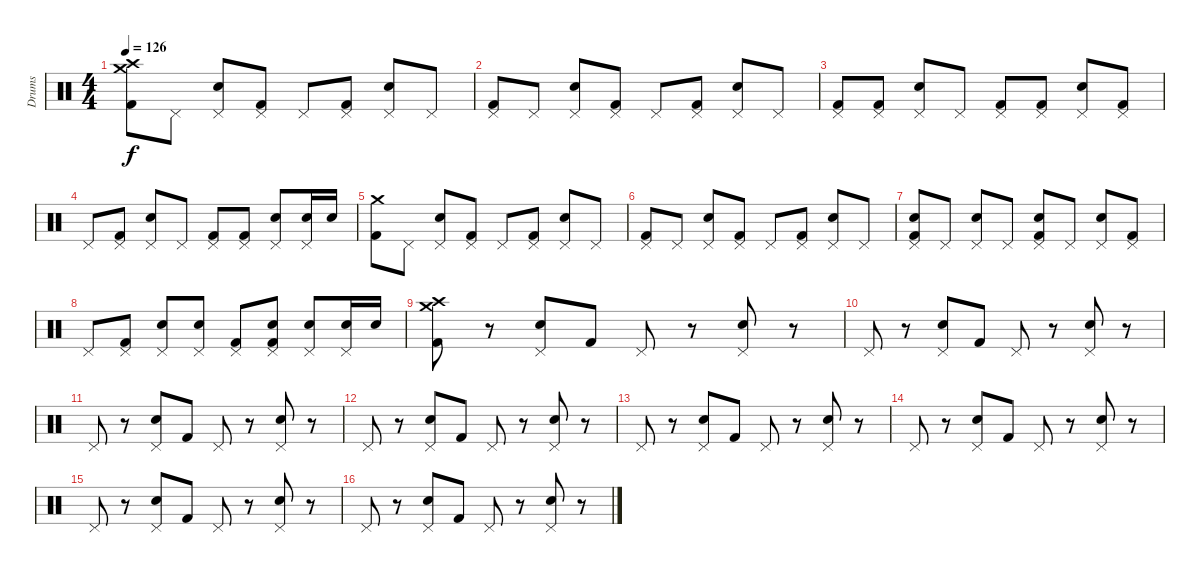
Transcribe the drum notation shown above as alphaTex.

\track ("Drums" "Drums") {instrument percussion}
\staff {score}
\articulation defaults
\ts (4 4)
\tempo 126
\clef neutral
\ks c
("Crash medium (hit)" "Crash high (hit)" "Kick (hit) 2").8{dy f} "Pedal Hi-Hat (hit)".8 ("Pedal Hi-Hat (hit)" "Snare (hit) 2").8 ("Pedal Hi-Hat (hit)" "Kick (hit) 2").8 "Pedal Hi-Hat (hit)".8 ("Pedal Hi-Hat (hit)" "Kick (hit) 2").8 ("Pedal Hi-Hat (hit)" "Snare (hit) 2").8 "Pedal Hi-Hat (hit)".8 |
("Pedal Hi-Hat (hit)" "Kick (hit) 2").8 "Pedal Hi-Hat (hit)".8 ("Pedal Hi-Hat (hit)" "Snare (hit) 2").8 ("Pedal Hi-Hat (hit)" "Kick (hit) 2").8 "Pedal Hi-Hat (hit)".8 ("Pedal Hi-Hat (hit)" "Kick (hit) 2").8 ("Pedal Hi-Hat (hit)" "Snare (hit) 2").8 "Pedal Hi-Hat (hit)".8 |
("Pedal Hi-Hat (hit)" "Kick (hit) 2").8 ("Pedal Hi-Hat (hit)" "Kick (hit) 2").8 ("Pedal Hi-Hat (hit)" "Snare (hit) 2").8 "Pedal Hi-Hat (hit)".8 ("Pedal Hi-Hat (hit)" "Kick (hit) 2").8 ("Pedal Hi-Hat (hit)" "Kick (hit) 2").8 ("Pedal Hi-Hat (hit)" "Snare (hit) 2").8 ("Pedal Hi-Hat (hit)" "Kick (hit) 2").8 |
"Pedal Hi-Hat (hit)".8 ("Pedal Hi-Hat (hit)" "Kick (hit) 2").8 ("Pedal Hi-Hat (hit)" "Snare (hit) 2").8 "Pedal Hi-Hat (hit)".8 ("Pedal Hi-Hat (hit)" "Kick (hit) 2").8 ("Pedal Hi-Hat (hit)" "Kick (hit) 2").8 ("Pedal Hi-Hat (hit)" "Snare (hit) 2").8 ("Pedal Hi-Hat (hit)" "Snare (hit) 2").16 "Snare (hit) 2".16 |
("Crash medium (hit)" "Kick (hit) 2").8 "Pedal Hi-Hat (hit)".8 ("Pedal Hi-Hat (hit)" "Snare (hit) 2").8 ("Pedal Hi-Hat (hit)" "Kick (hit) 2").8 "Pedal Hi-Hat (hit)".8 ("Pedal Hi-Hat (hit)" "Kick (hit) 2").8 ("Pedal Hi-Hat (hit)" "Snare (hit) 2").8 "Pedal Hi-Hat (hit)".8 |
("Pedal Hi-Hat (hit)" "Kick (hit) 2").8 "Pedal Hi-Hat (hit)".8 ("Pedal Hi-Hat (hit)" "Snare (hit) 2").8 ("Pedal Hi-Hat (hit)" "Kick (hit) 2").8 "Pedal Hi-Hat (hit)".8 ("Pedal Hi-Hat (hit)" "Kick (hit) 2").8 ("Pedal Hi-Hat (hit)" "Snare (hit) 2").8 "Pedal Hi-Hat (hit)".8 |
("Pedal Hi-Hat (hit)" "Snare (hit) 2" "Kick (hit) 2").8 "Pedal Hi-Hat (hit)".8 ("Pedal Hi-Hat (hit)" "Snare (hit) 2").8 "Pedal Hi-Hat (hit)".8 ("Pedal Hi-Hat (hit)" "Snare (hit) 2" "Kick (hit) 2").8 "Pedal Hi-Hat (hit)".8 ("Pedal Hi-Hat (hit)" "Snare (hit) 2").8 ("Pedal Hi-Hat (hit)" "Kick (hit) 2").8 |
"Pedal Hi-Hat (hit)".8 ("Pedal Hi-Hat (hit)" "Kick (hit) 2").8 ("Pedal Hi-Hat (hit)" "Snare (hit) 2").8 ("Pedal Hi-Hat (hit)" "Snare (hit) 2").8 ("Pedal Hi-Hat (hit)" "Kick (hit) 2").8 ("Pedal Hi-Hat (hit)" "Snare (hit) 2" "Kick (hit) 2").8 ("Pedal Hi-Hat (hit)" "Snare (hit) 2").8 ("Pedal Hi-Hat (hit)" "Snare (hit) 2").16 "Snare (hit) 2".16 |
("Crash medium (hit)" "Crash high (hit)" "Kick (hit) 2").8 r.8 ("Pedal Hi-Hat (hit)" "Snare (hit) 2").8 "Kick (hit) 2".8 "Pedal Hi-Hat (hit)".8 r.8 ("Pedal Hi-Hat (hit)" "Snare (hit) 2").8 r.8 |
"Pedal Hi-Hat (hit)".8 r.8 ("Pedal Hi-Hat (hit)" "Snare (hit) 2").8 "Kick (hit) 2".8 "Pedal Hi-Hat (hit)".8 r.8 ("Pedal Hi-Hat (hit)" "Snare (hit) 2").8 r.8 |
"Pedal Hi-Hat (hit)".8 r.8 ("Pedal Hi-Hat (hit)" "Snare (hit) 2").8 "Kick (hit) 2".8 "Pedal Hi-Hat (hit)".8 r.8 ("Pedal Hi-Hat (hit)" "Snare (hit) 2").8 r.8 |
"Pedal Hi-Hat (hit)".8 r.8 ("Pedal Hi-Hat (hit)" "Snare (hit) 2").8 "Kick (hit) 2".8 "Pedal Hi-Hat (hit)".8 r.8 ("Pedal Hi-Hat (hit)" "Snare (hit) 2").8 r.8 |
"Pedal Hi-Hat (hit)".8 r.8 ("Pedal Hi-Hat (hit)" "Snare (hit) 2").8 "Kick (hit) 2".8 "Pedal Hi-Hat (hit)".8 r.8 ("Pedal Hi-Hat (hit)" "Snare (hit) 2").8 r.8 |
"Pedal Hi-Hat (hit)".8 r.8 ("Pedal Hi-Hat (hit)" "Snare (hit) 2").8 "Kick (hit) 2".8 "Pedal Hi-Hat (hit)".8 r.8 ("Pedal Hi-Hat (hit)" "Snare (hit) 2").8 r.8 |
"Pedal Hi-Hat (hit)".8 r.8 ("Pedal Hi-Hat (hit)" "Snare (hit) 2").8 "Kick (hit) 2".8 "Pedal Hi-Hat (hit)".8 r.8 ("Pedal Hi-Hat (hit)" "Snare (hit) 2").8 r.8 |
"Pedal Hi-Hat (hit)".8 r.8 ("Pedal Hi-Hat (hit)" "Snare (hit) 2").8 "Kick (hit) 2".8 "Pedal Hi-Hat (hit)".8 r.8 ("Pedal Hi-Hat (hit)" "Snare (hit) 2").8 r.8
